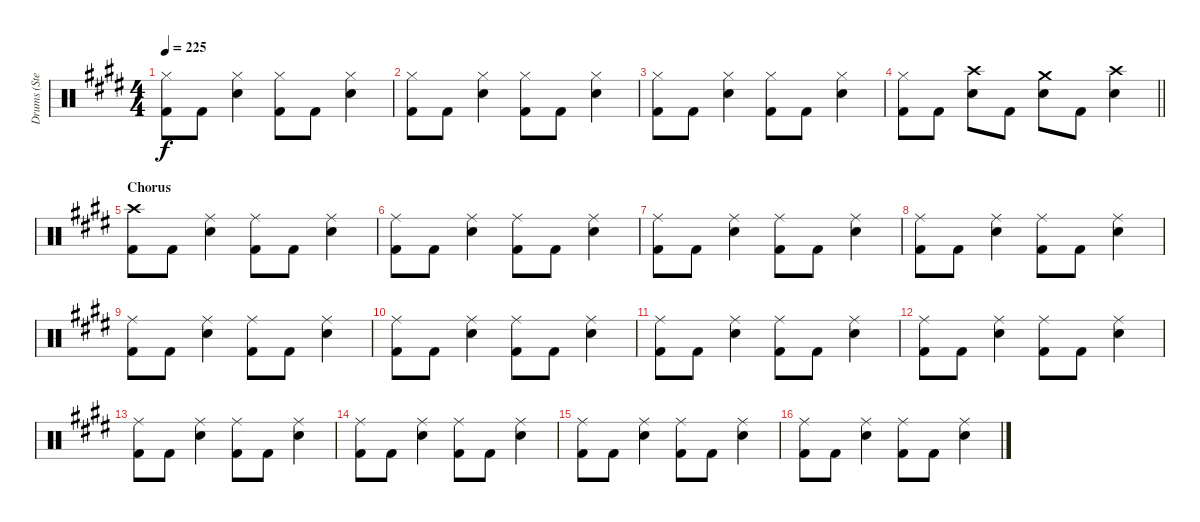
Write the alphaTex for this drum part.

\track ("Drums (Steven)" "Drums (Ste") {instrument percussion}
\staff {score}
\articulation defaults
\ts (4 4)
\tempo 225
\clef neutral
\ks e
("Hi-Hat (closed)" "Kick (hit) 2").8{dy f} "Kick (hit) 2".8 ("Hi-Hat (closed)" "Snare (hit) 2").4 ("Hi-Hat (closed)" "Kick (hit) 2").8 "Kick (hit) 2".8 ("Hi-Hat (closed)" "Snare (hit) 2").4 |
("Hi-Hat (closed)" "Kick (hit) 2").8 "Kick (hit) 2".8 ("Hi-Hat (closed)" "Snare (hit) 2").4 ("Hi-Hat (closed)" "Kick (hit) 2").8 "Kick (hit) 2".8 ("Hi-Hat (closed)" "Snare (hit) 2").4 |
("Hi-Hat (closed)" "Kick (hit) 2").8 "Kick (hit) 2".8 ("Hi-Hat (closed)" "Snare (hit) 2").4 ("Hi-Hat (closed)" "Kick (hit) 2").8 "Kick (hit) 2".8 ("Hi-Hat (closed)" "Snare (hit) 2").4 |
\barLineRight lightlight
("Hi-Hat (closed)" "Kick (hit) 2").8 "Kick (hit) 2".8 ("Crash high (hit)" "Snare (hit) 2").8 "Kick (hit) 2".8 ("Crash medium (hit)" "Snare (hit) 2").8 "Kick (hit) 2".8 ("Crash high (hit)" "Snare (hit) 2").4 |
\section ("" "Chorus")
("Crash high (hit)" "Kick (hit) 2").8 "Kick (hit) 2".8 ("Ride (middle)" "Snare (hit) 2").4 ("Ride (middle)" "Kick (hit) 2").8 "Kick (hit) 2".8 ("Ride (middle)" "Snare (hit) 2").4 |
("Ride (middle)" "Kick (hit) 2").8 "Kick (hit) 2".8 ("Ride (middle)" "Snare (hit) 2").4 ("Ride (middle)" "Kick (hit) 2").8 "Kick (hit) 2".8 ("Ride (middle)" "Snare (hit) 2").4 |
("Ride (middle)" "Kick (hit) 2").8 "Kick (hit) 2".8 ("Ride (middle)" "Snare (hit) 2").4 ("Ride (middle)" "Kick (hit) 2").8 "Kick (hit) 2".8 ("Ride (middle)" "Snare (hit) 2").4 |
("Ride (middle)" "Kick (hit) 2").8 "Kick (hit) 2".8 ("Ride (middle)" "Snare (hit) 2").4 ("Ride (middle)" "Kick (hit) 2").8 "Kick (hit) 2".8 ("Ride (middle)" "Snare (hit) 2").4 |
("Ride (middle)" "Kick (hit) 2").8 "Kick (hit) 2".8 ("Ride (middle)" "Snare (hit) 2").4 ("Ride (middle)" "Kick (hit) 2").8 "Kick (hit) 2".8 ("Ride (middle)" "Snare (hit) 2").4 |
("Ride (middle)" "Kick (hit) 2").8 "Kick (hit) 2".8 ("Ride (middle)" "Snare (hit) 2").4 ("Ride (middle)" "Kick (hit) 2").8 "Kick (hit) 2".8 ("Ride (middle)" "Snare (hit) 2").4 |
("Ride (middle)" "Kick (hit) 2").8 "Kick (hit) 2".8 ("Ride (middle)" "Snare (hit) 2").4 ("Ride (middle)" "Kick (hit) 2").8 "Kick (hit) 2".8 ("Ride (middle)" "Snare (hit) 2").4 |
("Ride (middle)" "Kick (hit) 2").8 "Kick (hit) 2".8 ("Ride (middle)" "Snare (hit) 2").4 ("Ride (middle)" "Kick (hit) 2").8 "Kick (hit) 2".8 ("Ride (middle)" "Snare (hit) 2").4 |
("Ride (middle)" "Kick (hit) 2").8 "Kick (hit) 2".8 ("Ride (middle)" "Snare (hit) 2").4 ("Ride (middle)" "Kick (hit) 2").8 "Kick (hit) 2".8 ("Ride (middle)" "Snare (hit) 2").4 |
("Ride (middle)" "Kick (hit) 2").8 "Kick (hit) 2".8 ("Ride (middle)" "Snare (hit) 2").4 ("Ride (middle)" "Kick (hit) 2").8 "Kick (hit) 2".8 ("Ride (middle)" "Snare (hit) 2").4 |
("Ride (middle)" "Kick (hit) 2").8 "Kick (hit) 2".8 ("Ride (middle)" "Snare (hit) 2").4 ("Ride (middle)" "Kick (hit) 2").8 "Kick (hit) 2".8 ("Ride (middle)" "Snare (hit) 2").4 |
("Ride (middle)" "Kick (hit) 2").8 "Kick (hit) 2".8 ("Ride (middle)" "Snare (hit) 2").4 ("Ride (middle)" "Kick (hit) 2").8 "Kick (hit) 2".8 ("Ride (middle)" "Snare (hit) 2").4
